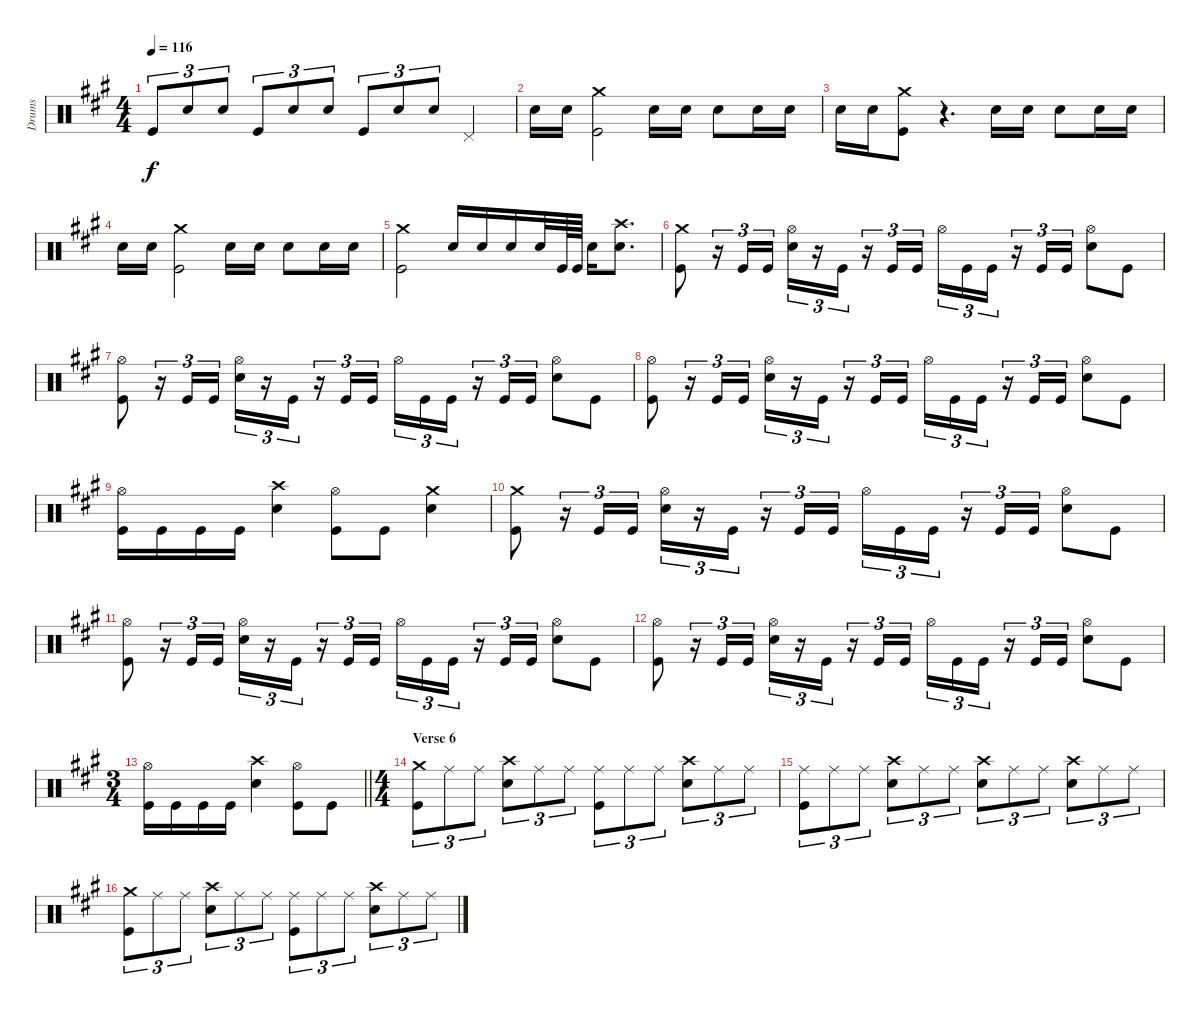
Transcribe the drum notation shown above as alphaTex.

\track ("Drums" "Drums") {instrument percussion}
\staff {score}
\articulation defaults
\ts (4 4)
\tempo 116
\clef neutral
\ks a "Kick (hit)".8{tu (3 2) dy f} "Snare (hit) 2".8{tu (3 2)} "Snare (hit) 2".8{tu (3 2)} "Kick (hit)".8{tu (3 2)} "Snare (hit) 2".8{tu (3 2)} "Snare (hit) 2".8{tu (3 2)} "Kick (hit)".8{tu (3 2)} "Snare (hit) 2".8{tu (3 2)} "Snare (hit) 2".8{tu (3 2)} "Pedal Hi-Hat (hit)".4
|
"Snare (hit) 2".16 "Snare (hit) 2".16 ("Crash medium (hit)" "Kick (hit)").2 "Snare (hit) 2".16 "Snare (hit) 2".16 "Snare (hit) 2".8 "Snare (hit) 2".16 "Snare (hit) 2".16 |
"Snare (hit) 2".16 "Snare (hit) 2".16 ("Crash medium (hit)" "Kick (hit)").8 r.4{d} "Snare (hit) 2".16 "Snare (hit) 2".16 "Snare (hit) 2".8 "Snare (hit) 2".16 "Snare (hit) 2".16 |
"Snare (hit) 2".16 "Snare (hit) 2".16 ("Crash medium (hit)" "Kick (hit)").2 "Snare (hit) 2".16 "Snare (hit) 2".16 "Snare (hit) 2".8 "Snare (hit) 2".16 "Snare (hit) 2".16 |
("Crash medium (hit)" "Kick (hit)").2 "Snare (hit) 2".16 "Snare (hit) 2".16 "Snare (hit) 2".16 "Snare (hit) 2".32 "Kick (hit)".64 "Kick (hit)".64 "Snare (hit) 2".16 ("Crash high (hit)" "Snare (hit) 2").8{d} |
("Crash medium (hit)" "Kick (hit)").8 r.16{tu (3 2)} "Kick (hit)".16{tu (3 2)} "Kick (hit)".16{tu (3 2)} ("Hi-Hat (open)" "Snare (hit) 2").16{tu (3 2)} r.16{tu (3 2)} "Kick (hit)".16{tu (3 2)} r.16{tu (3 2)} "Kick (hit)".16{tu (3 2)} "Kick (hit)".16{tu (3 2)} "Hi-Hat (open)".16{tu (3 2)} "Kick (hit)".16{tu (3 2)} "Kick (hit)".16{tu (3 2)} r.16{tu (3 2)} "Kick (hit)".16{tu (3 2)} "Kick (hit)".16{tu (3 2)} ("Hi-Hat (open)" "Snare (hit) 2").8 "Kick (hit)".8 |
("Hi-Hat (open)" "Kick (hit)").8 r.16{tu (3 2)} "Kick (hit)".16{tu (3 2)} "Kick (hit)".16{tu (3 2)} ("Hi-Hat (open)" "Snare (hit) 2").16{tu (3 2)} r.16{tu (3 2)} "Kick (hit)".16{tu (3 2)} r.16{tu (3 2)} "Kick (hit)".16{tu (3 2)} "Kick (hit)".16{tu (3 2)} "Hi-Hat (open)".16{tu (3 2)} "Kick (hit)".16{tu (3 2)} "Kick (hit)".16{tu (3 2)} r.16{tu (3 2)} "Kick (hit)".16{tu (3 2)} "Kick (hit)".16{tu (3 2)} ("Hi-Hat (open)" "Snare (hit) 2").8 "Kick (hit)".8 |
("Hi-Hat (open)" "Kick (hit)").8 r.16{tu (3 2)} "Kick (hit)".16{tu (3 2)} "Kick (hit)".16{tu (3 2)} ("Hi-Hat (open)" "Snare (hit) 2").16{tu (3 2)} r.16{tu (3 2)} "Kick (hit)".16{tu (3 2)} r.16{tu (3 2)} "Kick (hit)".16{tu (3 2)} "Kick (hit)".16{tu (3 2)} "Hi-Hat (open)".16{tu (3 2)} "Kick (hit)".16{tu (3 2)} "Kick (hit)".16{tu (3 2)} r.16{tu (3 2)} "Kick (hit)".16{tu (3 2)} "Kick (hit)".16{tu (3 2)} ("Hi-Hat (open)" "Snare (hit) 2").8 "Kick (hit)".8 |
("Hi-Hat (open)" "Kick (hit)").16 "Kick (hit)".16 "Kick (hit)".16 "Kick (hit)".16 ("Crash high (hit)" "Snare (hit) 2").4 ("Hi-Hat (open)" "Kick (hit)").8 "Kick (hit)".8 ("Crash medium (hit)" "Snare (hit) 2").4 |
("Crash medium (hit)" "Kick (hit)").8 r.16{tu (3 2)} "Kick (hit)".16{tu (3 2)} "Kick (hit)".16{tu (3 2)} ("Hi-Hat (open)" "Snare (hit) 2").16{tu (3 2)} r.16{tu (3 2)} "Kick (hit)".16{tu (3 2)} r.16{tu (3 2)} "Kick (hit)".16{tu (3 2)} "Kick (hit)".16{tu (3 2)} "Hi-Hat (open)".16{tu (3 2)} "Kick (hit)".16{tu (3 2)} "Kick (hit)".16{tu (3 2)} r.16{tu (3 2)} "Kick (hit)".16{tu (3 2)} "Kick (hit)".16{tu (3 2)} ("Hi-Hat (open)" "Snare (hit) 2").8 "Kick (hit)".8 |
("Hi-Hat (open)" "Kick (hit)").8 r.16{tu (3 2)} "Kick (hit)".16{tu (3 2)} "Kick (hit)".16{tu (3 2)} ("Hi-Hat (open)" "Snare (hit) 2").16{tu (3 2)} r.16{tu (3 2)} "Kick (hit)".16{tu (3 2)} r.16{tu (3 2)} "Kick (hit)".16{tu (3 2)} "Kick (hit)".16{tu (3 2)} "Hi-Hat (open)".16{tu (3 2)} "Kick (hit)".16{tu (3 2)} "Kick (hit)".16{tu (3 2)} r.16{tu (3 2)} "Kick (hit)".16{tu (3 2)} "Kick (hit)".16{tu (3 2)} ("Hi-Hat (open)" "Snare (hit) 2").8 "Kick (hit)".8 |
("Hi-Hat (open)" "Kick (hit)").8 r.16{tu (3 2)} "Kick (hit)".16{tu (3 2)} "Kick (hit)".16{tu (3 2)} ("Hi-Hat (open)" "Snare (hit) 2").16{tu (3 2)} r.16{tu (3 2)} "Kick (hit)".16{tu (3 2)} r.16{tu (3 2)} "Kick (hit)".16{tu (3 2)} "Kick (hit)".16{tu (3 2)} "Hi-Hat (open)".16{tu (3 2)} "Kick (hit)".16{tu (3 2)} "Kick (hit)".16{tu (3 2)} r.16{tu (3 2)} "Kick (hit)".16{tu (3 2)} "Kick (hit)".16{tu (3 2)} ("Hi-Hat (open)" "Snare (hit) 2").8 "Kick (hit)".8 |
\ts (3 4)
\barLineRight lightlight
("Hi-Hat (open)" "Kick (hit)").16 "Kick (hit)".16 "Kick (hit)".16 "Kick (hit)".16 ("Crash high (hit)" "Snare (hit) 2").4 ("Hi-Hat (open)" "Kick (hit)").8 "Kick (hit)".8 |
\ts (4 4)
\section ("" "Verse 6")
("Crash medium (hit)" "Kick (hit)").8{tu (3 2)} "Ride (middle)".8{tu (3 2)} "Ride (middle)".8{tu (3 2)} ("Crash high (hit)" "Snare (hit) 2").8{tu (3 2)} "Ride (middle)".8{tu (3 2)} "Ride (middle)".8{tu (3 2)} ("Ride (middle)" "Kick (hit)").8{tu (3 2)} "Ride (middle)".8{tu (3 2)} "Ride (middle)".8{tu (3 2)} ("Crash high (hit)" "Snare (hit) 2").8{tu (3 2)} "Ride (middle)".8{tu (3 2)} "Ride (middle)".8{tu (3 2)} |
("Ride (middle)" "Kick (hit)").8{tu (3 2)} "Ride (middle)".8{tu (3 2)} "Ride (middle)".8{tu (3 2)} ("Crash high (hit)" "Snare (hit) 2").8{tu (3 2)} "Ride (middle)".8{tu (3 2)} "Ride (middle)".8{tu (3 2)} ("Crash high (hit)" "Snare (hit) 2").8{tu (3 2)} "Ride (middle)".8{tu (3 2)} "Ride (middle)".8{tu (3 2)} ("Crash high (hit)" "Snare (hit) 2").8{tu (3 2)} "Ride (middle)".8{tu (3 2)} "Ride (middle)".8{tu (3 2)} |
("Crash medium (hit)" "Kick (hit)").8{tu (3 2)} "Ride (middle)".8{tu (3 2)} "Ride (middle)".8{tu (3 2)} ("Crash high (hit)" "Snare (hit) 2").8{tu (3 2)} "Ride (middle)".8{tu (3 2)} "Ride (middle)".8{tu (3 2)} ("Ride (middle)" "Kick (hit)").8{tu (3 2)} "Ride (middle)".8{tu (3 2)} "Ride (middle)".8{tu (3 2)} ("Crash high (hit)" "Snare (hit) 2").8{tu (3 2)} "Ride (middle)".8{tu (3 2)} "Ride (middle)".8{tu (3 2)}
